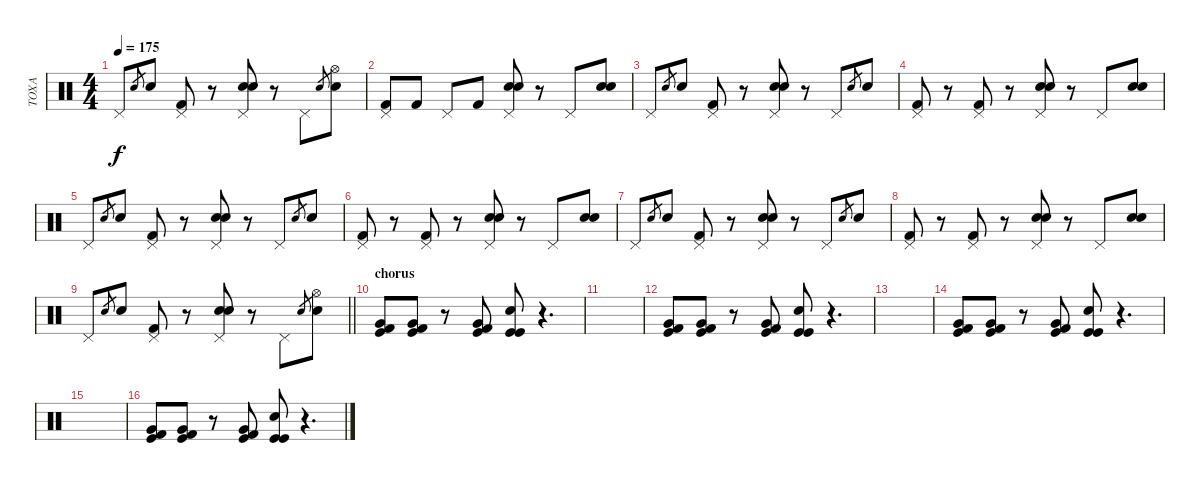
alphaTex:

\track ("TOXA" "TOXA") {instrument percussion}
\staff {score}
\articulation defaults
\ts (4 4)
\tempo 175
\clef neutral
\ks c "Pedal Hi-Hat (hit)".8{dy f} "Electric Snare (hit)".8{gr} "Electric Snare (hit)".8
("Pedal Hi-Hat (hit)" "Kick (hit) 2").8 r.8 ("Pedal Hi-Hat (hit)" "Electric Snare (hit)" "Snare (hit) 2").8 r.8 "Pedal Hi-Hat (hit)".8 "Electric Snare (hit)".8{gr} ("Hi-Hat (open)" "Electric Snare (hit)").8 |
("Pedal Hi-Hat (hit)" "Kick (hit) 2").8 "Kick (hit) 2".8 "Pedal Hi-Hat (hit)".8 "Kick (hit) 2".8 ("Pedal Hi-Hat (hit)" "Snare (hit) 2" "Electric Snare (hit)").8 r.8 "Pedal Hi-Hat (hit)".8 ("Electric Snare (hit)" "Snare (hit) 2").8 |
"Pedal Hi-Hat (hit)".8 "Electric Snare (hit)".8{gr} "Electric Snare (hit)".8 ("Pedal Hi-Hat (hit)" "Kick (hit) 2").8 r.8 ("Pedal Hi-Hat (hit)" "Electric Snare (hit)" "Snare (hit) 2").8 r.8 "Pedal Hi-Hat (hit)".8 "Electric Snare (hit)".8{gr} "Electric Snare (hit)".8 |
("Pedal Hi-Hat (hit)" "Kick (hit) 2").8 r.8 ("Pedal Hi-Hat (hit)" "Kick (hit) 2").8 r.8 ("Pedal Hi-Hat (hit)" "Electric Snare (hit)" "Snare (hit) 2").8 r.8 "Pedal Hi-Hat (hit)".8 ("Electric Snare (hit)" "Snare (hit) 2").8 |
"Pedal Hi-Hat (hit)".8 "Electric Snare (hit)".8{gr} "Electric Snare (hit)".8 ("Pedal Hi-Hat (hit)" "Kick (hit) 2").8 r.8 ("Pedal Hi-Hat (hit)" "Electric Snare (hit)" "Snare (hit) 2").8 r.8 "Pedal Hi-Hat (hit)".8 "Electric Snare (hit)".8{gr} "Electric Snare (hit)".8 |
("Pedal Hi-Hat (hit)" "Kick (hit) 2").8 r.8 ("Pedal Hi-Hat (hit)" "Kick (hit) 2").8 r.8 ("Pedal Hi-Hat (hit)" "Electric Snare (hit)" "Snare (hit) 2").8 r.8 "Pedal Hi-Hat (hit)".8 ("Electric Snare (hit)" "Snare (hit) 2").8 |
"Pedal Hi-Hat (hit)".8 "Electric Snare (hit)".8{gr} "Electric Snare (hit)".8 ("Pedal Hi-Hat (hit)" "Kick (hit) 2").8 r.8 ("Pedal Hi-Hat (hit)" "Electric Snare (hit)" "Snare (hit) 2").8 r.8 "Pedal Hi-Hat (hit)".8 "Electric Snare (hit)".8{gr} "Electric Snare (hit)".8 |
("Pedal Hi-Hat (hit)" "Kick (hit) 2").8 r.8 ("Pedal Hi-Hat (hit)" "Kick (hit) 2").8 r.8 ("Pedal Hi-Hat (hit)" "Electric Snare (hit)" "Snare (hit) 2").8 r.8 "Pedal Hi-Hat (hit)".8 ("Electric Snare (hit)" "Snare (hit) 2").8 |
\barLineRight lightlight "Pedal Hi-Hat (hit)".8 "Electric Snare (hit)".8{gr} "Electric Snare (hit)".8
("Pedal Hi-Hat (hit)" "Kick (hit) 2").8 r.8 ("Pedal Hi-Hat (hit)" "Electric Snare (hit)" "Snare (hit) 2").8 r.8 "Pedal Hi-Hat (hit)".8 "Electric Snare (hit)".8{gr} ("Hi-Hat (open)" "Electric Snare (hit)").8 |
\section ("" "chorus")
("Very Low Tom (hit)" "Kick (hit)" "Kick (hit) 2").8 ("Very Low Tom (hit)" "Kick (hit)" "Kick (hit) 2").8 r.8 ("Very Low Tom (hit)" "Kick (hit)" "Kick (hit) 2").8 ("Electric Snare (hit)" "Kick (hit)" "Kick (hit)").8 r.4{d} |
|
("Very Low Tom (hit)" "Kick (hit)" "Kick (hit) 2").8 ("Very Low Tom (hit)" "Kick (hit)" "Kick (hit) 2").8 r.8 ("Very Low Tom (hit)" "Kick (hit)" "Kick (hit) 2").8 ("Electric Snare (hit)" "Kick (hit)" "Kick (hit)").8 r.4{d} |
|
("Very Low Tom (hit)" "Kick (hit)" "Kick (hit) 2").8 ("Very Low Tom (hit)" "Kick (hit)" "Kick (hit) 2").8 r.8 ("Very Low Tom (hit)" "Kick (hit)" "Kick (hit) 2").8 ("Electric Snare (hit)" "Kick (hit)" "Kick (hit)").8 r.4{d} |
|
("Very Low Tom (hit)" "Kick (hit)" "Kick (hit) 2").8 ("Very Low Tom (hit)" "Kick (hit)" "Kick (hit) 2").8 r.8 ("Very Low Tom (hit)" "Kick (hit)" "Kick (hit) 2").8 ("Electric Snare (hit)" "Kick (hit)" "Kick (hit)").8 r.4{d}
